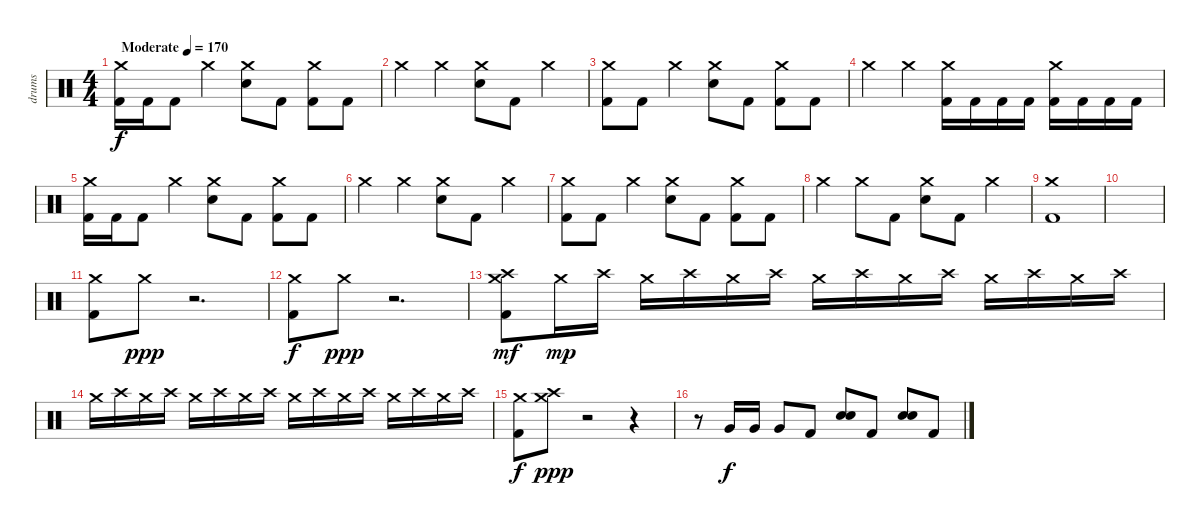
\track ("drums" "drums") {instrument percussion}
\staff {score}
\articulation defaults
\ts (4 4)
\tempo (170 "Moderate")
\clef neutral
\ks c
("Crash medium (hit)" "Kick (hit) 2").16{dy f} "Kick (hit) 2".16 "Kick (hit) 2".8 "Crash medium (hit)".4 ("Crash medium (hit)" "Electric Snare (hit)").8 "Kick (hit) 2".8 ("Crash medium (hit)" "Kick (hit) 2").8 "Kick (hit) 2".8 |
"Crash medium (hit)".4 "Crash medium (hit)".4 ("Crash medium (hit)" "Electric Snare (hit)").8 "Kick (hit) 2".8 "Crash medium (hit)".4 |
("Crash medium (hit)" "Kick (hit) 2").8 "Kick (hit) 2".8 "Crash medium (hit)".4 ("Crash medium (hit)" "Electric Snare (hit)").8 "Kick (hit) 2".8 ("Crash medium (hit)" "Kick (hit) 2").8 "Kick (hit) 2".8 |
"Crash medium (hit)".4 "Crash medium (hit)".4 ("Crash medium (hit)" "Kick (hit) 2").16 "Kick (hit) 2".16 "Kick (hit) 2".16 "Kick (hit) 2".16 ("Crash medium (hit)" "Kick (hit) 2").16 "Kick (hit) 2".16 "Kick (hit) 2".16 "Kick (hit) 2".16 |
("Crash medium (hit)" "Kick (hit) 2").16 "Kick (hit) 2".16 "Kick (hit) 2".8 "Crash medium (hit)".4 ("Crash medium (hit)" "Electric Snare (hit)").8 "Kick (hit) 2".8 ("Crash medium (hit)" "Kick (hit) 2").8 "Kick (hit) 2".8 |
"Crash medium (hit)".4 "Crash medium (hit)".4 ("Crash medium (hit)" "Electric Snare (hit)").8 "Kick (hit) 2".8 "Crash medium (hit)".4 |
("Crash medium (hit)" "Kick (hit) 2").8 "Kick (hit) 2".8 "Crash medium (hit)".4 ("Crash medium (hit)" "Electric Snare (hit)").8 "Kick (hit) 2".8 ("Crash medium (hit)" "Kick (hit) 2").8 "Kick (hit) 2".8 |
"Crash medium (hit)".4 "Crash medium (hit)".8 "Kick (hit) 2".8 ("Crash medium (hit)" "Electric Snare (hit)").8 "Kick (hit) 2".8 "Crash medium (hit)".4 |
("Crash medium (hit)" "Kick (hit) 2").1 |
|
("Crash medium (hit)" "Kick (hit) 2").8 "Crash medium (hit)".8{dy ppp} r.2{d} |
("Crash medium (hit)" "Kick (hit) 2").8{dy f} "Crash medium (hit)".8{dy ppp} r.2{d} |
("Crash medium (hit)" "Crash high (hit)" "Kick (hit) 2").8{dy mf} "Crash medium (hit)".16{dy mp} "Crash high (hit)".16 "Crash medium (hit)".16 "Crash high (hit)".16 "Crash medium (hit)".16 "Crash high (hit)".16 "Crash medium (hit)".16 "Crash high (hit)".16 "Crash medium (hit)".16 "Crash high (hit)".16 "Crash medium (hit)".16 "Crash high (hit)".16 "Crash medium (hit)".16 "Crash high (hit)".16 |
"Crash medium (hit)".16 "Crash high (hit)".16 "Crash medium (hit)".16 "Crash high (hit)".16 "Crash medium (hit)".16 "Crash high (hit)".16 "Crash medium (hit)".16 "Crash high (hit)".16 "Crash medium (hit)".16 "Crash high (hit)".16 "Crash medium (hit)".16 "Crash high (hit)".16 "Crash medium (hit)".16 "Crash high (hit)".16 "Crash medium (hit)".16 "Crash high (hit)".16 |
("Crash medium (hit)" "Kick (hit) 2").8{dy f} ("Crash medium (hit)" "Crash high (hit)").8{dy ppp} r.2 r.4 |
r.8 "Very Low Tom (hit)".16{dy f} "Very Low Tom (hit)".16 "Very Low Tom (hit)".8 "Kick (hit) 2".8 ("Electric Snare (hit)" "Electric Snare (hit)").8 "Kick (hit) 2".8 ("Electric Snare (hit)" "Electric Snare (hit)").8 "Kick (hit) 2".8
